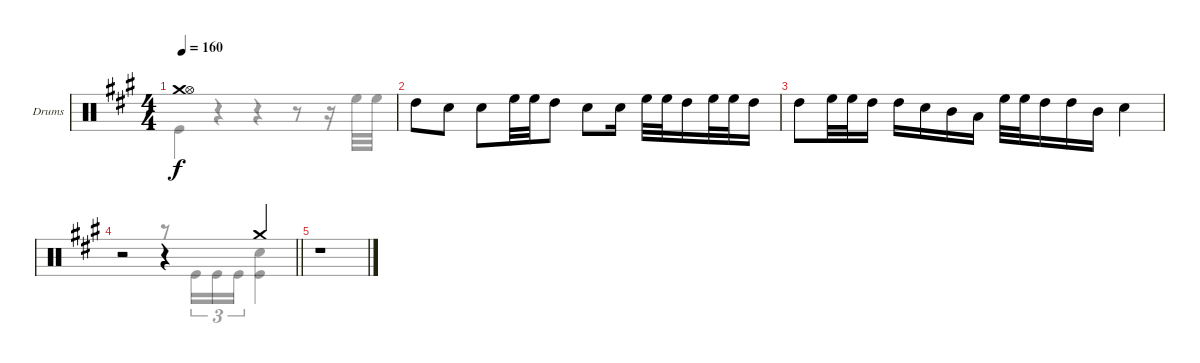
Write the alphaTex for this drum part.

\bracketExtendMode groupsimilarinstruments
\firstSystemTrackNameOrientation horizontal
\otherSystemsTrackNameOrientation horizontal
\track ("Drumkit" "Drums") {instrument percussion}
\staff {score}
\articulation defaults
\voice
\ts (4 4)
\tempo 160
\clef neutral
\ks a
("Crash medium (hit)" "Hi-Hat (open)").1{dy f} |
"High Tom (hit)".8 "Snare (hit) 2".8 "Snare (hit) 2".8 "High Floor Tom (hit)".32 "High Floor Tom (hit)".32 "High Tom (hit)".8 "Snare (hit) 2".8 "Snare (hit) 2".16 "High Floor Tom (hit)".32 "High Floor Tom (hit)".32 "High Tom (hit)".16 "High Floor Tom (hit)".32 "High Floor Tom (hit)".32 "High Tom (hit)".16 |
"High Tom (hit)".8 "High Floor Tom (hit)".32 "High Floor Tom (hit)".32 "High Tom (hit)".16 "High Tom (hit)".16 "Snare (hit) 2".16 "Mid Tom (hit)".16 "Low Tom (hit)".16 "High Floor Tom (hit)".32 "High Floor Tom (hit)".32 "High Tom (hit)".16 "High Tom (hit)".16 "Mid Tom (hit)".16 "Snare (hit) 2".4 |
\barLineRight lightlight
r.2 r.4 "Crash medium (hit)".4 |
r.1
\voice
\clef neutral
\ottava regular
\simile none
\ks a "Kick (hit)".4{dy f}
r.4 r.4 r.8 r.16 "High Floor Tom (hit)".32 "High Floor Tom (hit)".32 |
|
|
\barLineRight lightlight
r.2 r.8 "Kick (hit)".16{tu (3 2)} "Kick (hit)".16{tu (3 2)} "Kick (hit)".16{tu (3 2)} ("Snare (hit) 2" "Kick (hit)").4 |
